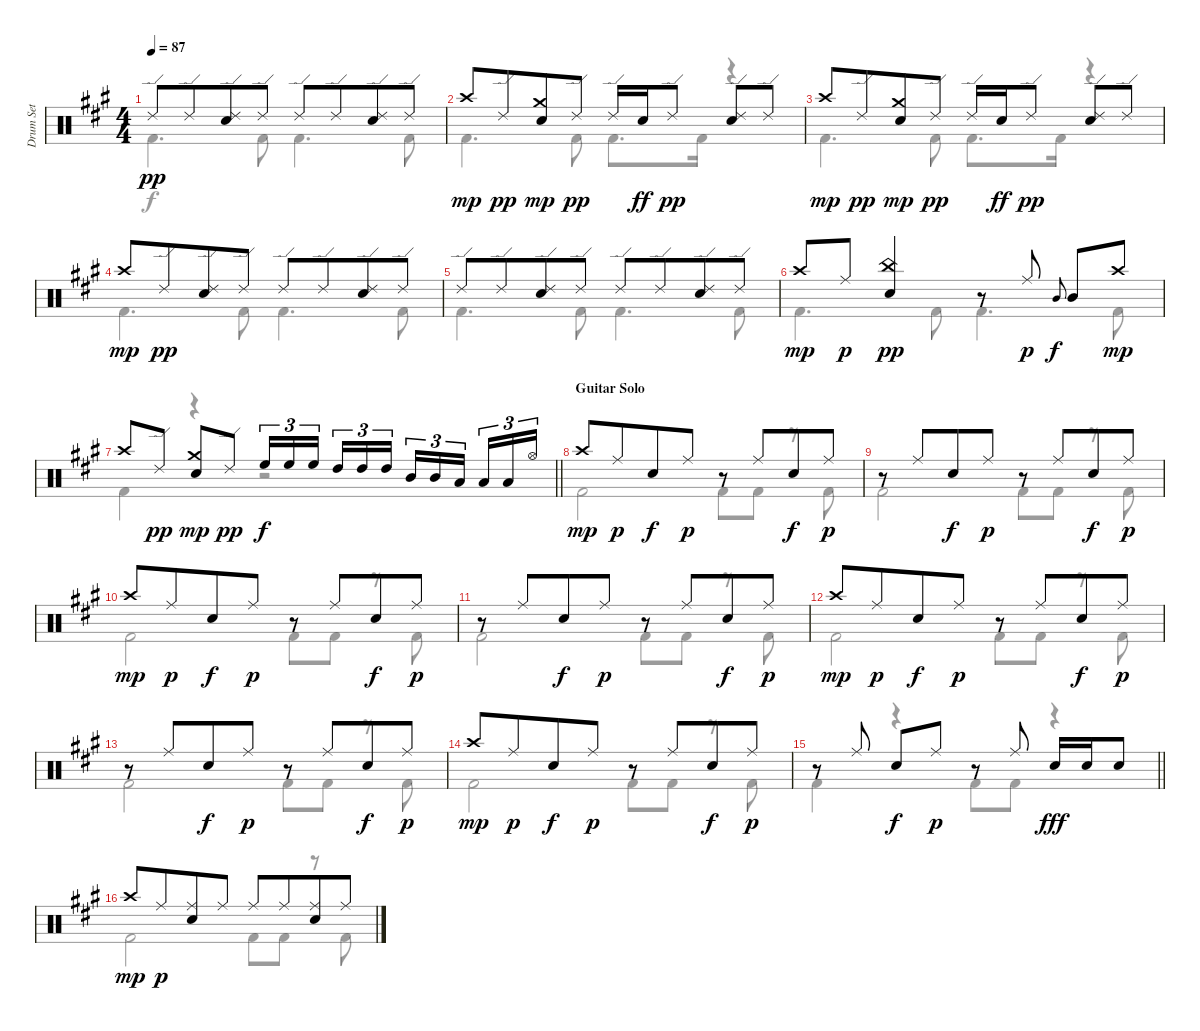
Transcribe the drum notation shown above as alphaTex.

\track ("Drum Set" "Drum Set") {instrument percussion}
\staff {score}
\articulation defaults
\voice
\ts (4 4)
\tempo 87
\clef neutral
\ks f#minor "Ride (edge) 2".8{dy pp} "Ride (edge) 2".8{beam merge}
("Ride (edge) 2" "Electric Snare (hit)").8 "Ride (edge) 2".8 "Ride (edge) 2".8 "Ride (edge) 2".8{beam merge} ("Ride (edge) 2" "Electric Snare (hit)").8 "Ride (edge) 2".8 |
"Crash high (hit)".8{dy mp} "Ride (edge) 2".8{dy pp beam merge} ("Crash medium (hit)" "Electric Snare (hit)").8{dy mp} "Ride (edge) 2".8{dy pp} "Ride (edge) 2".16 "Electric Snare (hit)".16{dy ff} "Ride (edge) 2".8{dy pp} ("Electric Snare (hit)" "Ride (edge) 2").8 "Ride (edge) 2".8 |
"Crash high (hit)".8{dy mp} "Ride (edge) 2".8{dy pp beam merge} ("Crash medium (hit)" "Electric Snare (hit)").8{dy mp} "Ride (edge) 2".8{dy pp} "Ride (edge) 2".16 "Electric Snare (hit)".16{dy ff} "Ride (edge) 2".8{dy pp} ("Electric Snare (hit)" "Ride (edge) 2").8 "Ride (edge) 2".8 |
"Crash high (hit)".8{dy mp} "Ride (edge) 2".8{dy pp beam merge} ("Ride (edge) 2" "Electric Snare (hit)").8 "Ride (edge) 2".8 "Ride (edge) 2".8 "Ride (edge) 2".8{beam merge} ("Ride (edge) 2" "Electric Snare (hit)").8 "Ride (edge) 2".8 |
"Ride (edge) 2".8 "Ride (edge) 2".8{beam merge} ("Ride (edge) 2" "Electric Snare (hit)").8 "Ride (edge) 2".8 "Ride (edge) 2".8 "Ride (edge) 2".8{beam merge} ("Ride (edge) 2" "Electric Snare (hit)").8 "Ride (edge) 2".8 |
"Crash high (hit)".8{dy mp} "Ride (middle)".8{dy p beam merge} ("Electric Snare (hit)" "China (hit)").4{dy pp} r.8 "Ride (middle)".8{dy p} "Mid Tom (hit)".8{gr onbeat dy f beam merge} "Mid Tom (hit)".8 "Crash high (hit)".8{dy mp} |
\barLineRight lightlight "Crash high (hit)".8 "Ride (edge) 2".8{dy pp}
("Crash medium (hit)" "Electric Snare (hit)").8{dy mp} "Ride (edge) 2".8{dy pp} "High Floor Tom (hit)".16{tu (3 2) dy f} "High Floor Tom (hit)".16{tu (3 2)} "High Floor Tom (hit)".16{tu (3 2) beam splitsecondary} "High Tom (hit)".16{tu (3 2)} "High Tom (hit)".16{tu (3 2)} "High Tom (hit)".16{tu (3 2)} "Mid Tom (hit)".16{tu (3 2)} "Mid Tom (hit)".16{tu (3 2)} "Low Tom (hit)".16{tu (3 2) beam splitsecondary} "Low Tom (hit)".16{tu (3 2)} "Low Tom (hit)".16{tu (3 2)} "Hi-Hat (open)".16{tu (3 2)} |
\section ("" "Guitar Solo")
"Crash high (hit)".8{dy mp} "Ride (middle)".8{dy p beam merge} "Electric Snare (hit)".8{dy f} "Ride (middle)".8{dy p} r.8 "Ride (middle)".8{beam merge} "Electric Snare (hit)".8{dy f} "Ride (middle)".8{dy p} |
r.8 "Ride (middle)".8{beam merge} "Electric Snare (hit)".8{dy f} "Ride (middle)".8{dy p} r.8 "Ride (middle)".8{beam merge} "Electric Snare (hit)".8{dy f} "Ride (middle)".8{dy p} |
"Crash high (hit)".8{dy mp} "Ride (middle)".8{dy p beam merge} "Electric Snare (hit)".8{dy f} "Ride (middle)".8{dy p} r.8 "Ride (middle)".8{beam merge} "Electric Snare (hit)".8{dy f} "Ride (middle)".8{dy p} |
r.8 "Ride (middle)".8{beam merge} "Electric Snare (hit)".8{dy f} "Ride (middle)".8{dy p} r.8 "Ride (middle)".8{beam merge} "Electric Snare (hit)".8{dy f} "Ride (middle)".8{dy p} |
"Crash high (hit)".8{dy mp} "Ride (middle)".8{dy p beam merge} "Electric Snare (hit)".8{dy f} "Ride (middle)".8{dy p} r.8 "Ride (middle)".8{beam merge} "Electric Snare (hit)".8{dy f} "Ride (middle)".8{dy p} |
r.8 "Ride (middle)".8{beam merge} "Electric Snare (hit)".8{dy f} "Ride (middle)".8{dy p} r.8 "Ride (middle)".8{beam merge} "Electric Snare (hit)".8{dy f} "Ride (middle)".8{dy p} |
"Crash high (hit)".8{dy mp} "Ride (middle)".8{dy p beam merge} "Electric Snare (hit)".8{dy f} "Ride (middle)".8{dy p} r.8 "Ride (middle)".8{beam merge} "Electric Snare (hit)".8{dy f} "Ride (middle)".8{dy p} |
\barLineRight lightlight
r.8 "Ride (middle)".8 "Electric Snare (hit)".8{dy f} "Ride (middle)".8{dy p} r.8 "Ride (middle)".8 "Electric Snare (hit)".16{dy fff} "Electric Snare (hit)".16 "Electric Snare (hit)".8 |
"Crash high (hit)".8{dy mp} "Ride (middle)".8{dy p beam merge} ("Electric Snare (hit)" "Ride (middle)").8 "Ride (middle)".8 "Ride (middle)".8 "Ride (middle)".8{beam merge} ("Electric Snare (hit)" "Ride (middle)").8 "Ride (middle)".8
\voice
\clef neutral
\ottava regular
\simile none
\ks f#minor "Kick (hit) 2".4{d dy f} "Kick (hit) 2".8 "Kick (hit) 2".4{d} "Kick (hit) 2".8
|
"Kick (hit) 2".4{d} "Kick (hit) 2".8 "Kick (hit) 2".8{d} "Kick (hit) 2".16 r.4 |
"Kick (hit) 2".4{d} "Kick (hit) 2".8 "Kick (hit) 2".8{d} "Kick (hit) 2".16 r.4 |
"Kick (hit) 2".4{d} "Kick (hit) 2".8 "Kick (hit) 2".4{d} "Kick (hit) 2".8 |
"Kick (hit) 2".4{d} "Kick (hit) 2".8 "Kick (hit) 2".4{d} "Kick (hit) 2".8 |
"Kick (hit) 2".4{d} "Kick (hit) 2".8 "Kick (hit) 2".4{d} "Kick (hit) 2".8 |
\barLineRight lightlight "Kick (hit) 2".4
r.4 r.2 |
"Kick (hit) 2".2 "Kick (hit) 2".8 "Kick (hit) 2".8 r.8 "Kick (hit) 2".8 |
"Kick (hit) 2".2 "Kick (hit) 2".8 "Kick (hit) 2".8 r.8 "Kick (hit) 2".8 |
"Kick (hit) 2".2 "Kick (hit) 2".8 "Kick (hit) 2".8 r.8 "Kick (hit) 2".8 |
"Kick (hit) 2".2 "Kick (hit) 2".8 "Kick (hit) 2".8 r.8 "Kick (hit) 2".8 |
"Kick (hit) 2".2 "Kick (hit) 2".8 "Kick (hit) 2".8 r.8 "Kick (hit) 2".8 |
"Kick (hit) 2".2 "Kick (hit) 2".8 "Kick (hit) 2".8 r.8 "Kick (hit) 2".8 |
"Kick (hit) 2".2 "Kick (hit) 2".8 "Kick (hit) 2".8 r.8 "Kick (hit) 2".8 |
\barLineRight lightlight "Kick (hit) 2".4
r.4 "Kick (hit) 2".8 "Kick (hit) 2".8 r.4 |
"Kick (hit) 2".2 "Kick (hit) 2".8 "Kick (hit) 2".8 r.8 "Kick (hit) 2".8
